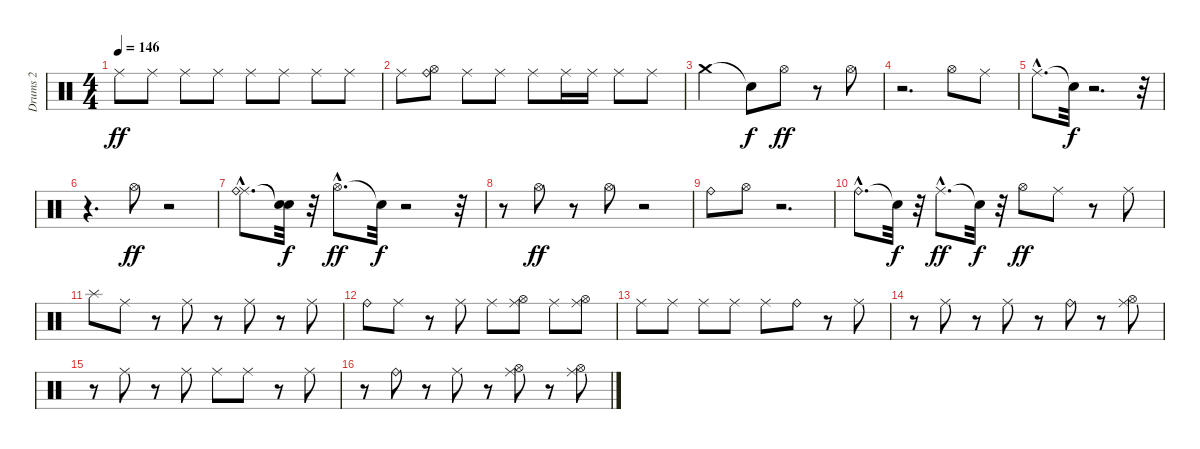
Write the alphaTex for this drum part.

\track ("Drums 2" "Drums 2") {instrument percussion}
\staff {score}
\articulation defaults
\ts (4 4)
\tempo 146
\clef neutral
\ks c "Ride (middle)".8{dy ff} "Ride (middle)".8 "Ride (middle)".8 "Ride (middle)".8 "Ride (middle)".8 "Ride (middle)".8 "Ride (middle)".8 "Ride (middle)".8
|
"Ride (middle)".8 ("Hi-Hat (open)" "Ride (bell)").8 "Ride (middle)".8 "Ride (middle)".8 "Ride (middle)".8 "Ride (middle)".16 "Ride (middle)".16 "Ride (middle)".8 "Ride (middle)".8 |
"Crash medium (hit)".2 "Snare (hit)"{t}.8{dy f} "Hi-Hat (open)".8{dy ff} r.8 "Hi-Hat (open)".8 |
r.2{d} "Hi-Hat (open)".8 "Ride (middle)".8 |
"Ride (middle)"{hac}.8{d} "Snare (hit)"{t}.32{dy f} r.2{d} r.32 |
r.4{d} "Hi-Hat (open)".8{dy ff} r.2 |
("Ride (middle)"{hac} "Ride (bell)"{hac}).8{d} ("Snare (hit)"{t} "Snare (hit)"{t}).32{dy f} r.32 "Hi-Hat (open)"{hac}.8{d dy ff} "Snare (hit)"{t}.32{dy f} r.2 r.32 |
r.8 "Hi-Hat (open)".8{dy ff} r.8 "Hi-Hat (open)".8 r.2 |
"Ride (bell)".8 "Hi-Hat (open)".8 r.2{d} |
"Ride (bell)"{hac}.8{d} "Snare (hit)"{t}.32{dy f} r.32 "Ride (middle)"{hac}.8{d dy ff} "Snare (hit)"{t}.32{dy f} r.32 "Hi-Hat (open)".8{dy ff} "Ride (middle)".8 r.8 "Ride (middle)".8 |
"Splash (hit)".8 "Ride (middle)".8 r.8 "Ride (middle)".8 r.8 "Ride (middle)".8 r.8 "Ride (middle)".8 |
"Ride (bell)".8 "Ride (middle)".8 r.8 "Ride (middle)".8 "Ride (middle)".8 ("Hi-Hat (open)" "Ride (middle)").8 "Ride (middle)".8 ("Hi-Hat (open)" "Ride (middle)").8 |
"Ride (middle)".8 "Ride (middle)".8 "Ride (middle)".8 "Ride (middle)".8 "Ride (middle)".8 "Ride (bell)".8 r.8 "Ride (middle)".8 |
r.8 "Ride (middle)".8 r.8 "Ride (middle)".8 r.8 "Ride (bell)".8 r.8 ("Hi-Hat (open)" "Ride (middle)").8 |
r.8 "Ride (middle)".8 r.8 "Ride (middle)".8 "Ride (middle)".8 "Ride (middle)".8 r.8 "Ride (middle)".8 |
r.8 "Ride (bell)".8 r.8 "Ride (middle)".8 r.8 ("Hi-Hat (open)" "Ride (middle)").8 r.8 ("Hi-Hat (open)" "Ride (middle)").8
